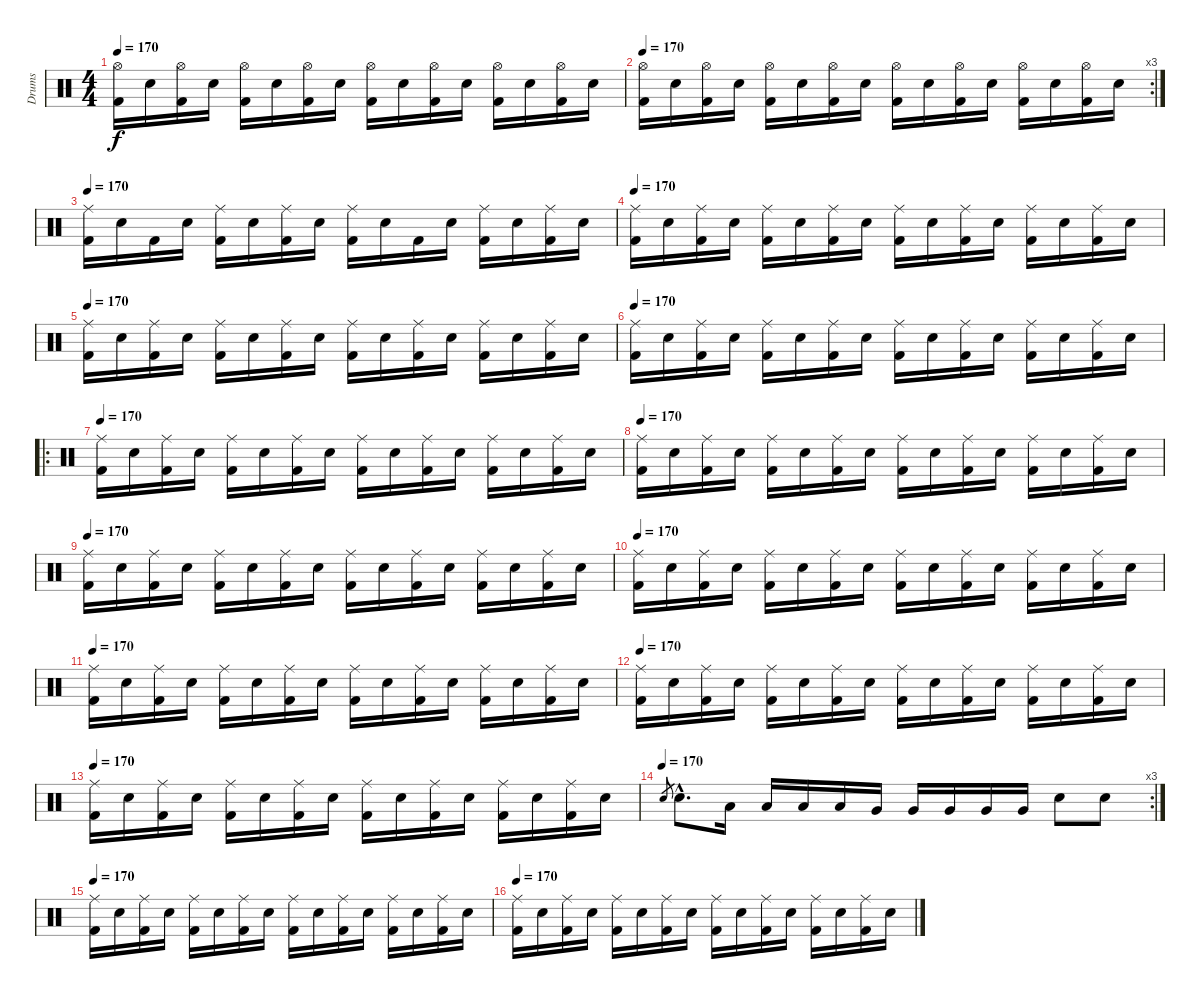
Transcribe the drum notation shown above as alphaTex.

\track ("Drums" "Drums") {instrument percussion}
\staff {score}
\articulation defaults
\ts (4 4)
\tempo 170
\clef neutral
\ks c
("Hi-Hat (open)" "Kick (hit) 2").16{dy f} "Snare (hit) 2".16 ("Hi-Hat (open)" "Kick (hit) 2").16 "Snare (hit) 2".16 ("Hi-Hat (open)" "Kick (hit) 2").16 "Snare (hit) 2".16 ("Hi-Hat (open)" "Kick (hit) 2").16 "Snare (hit) 2".16 ("Hi-Hat (open)" "Kick (hit) 2").16 "Snare (hit) 2".16 ("Hi-Hat (open)" "Kick (hit) 2").16 "Snare (hit) 2".16 ("Hi-Hat (open)" "Kick (hit) 2").16 "Snare (hit) 2".16 ("Hi-Hat (open)" "Kick (hit) 2").16 "Snare (hit) 2".16 |
\rc 3
\tempo 170
("Hi-Hat (open)" "Kick (hit) 2").16 "Snare (hit) 2".16 ("Hi-Hat (open)" "Kick (hit) 2").16 "Snare (hit) 2".16 ("Hi-Hat (open)" "Kick (hit) 2").16 "Snare (hit) 2".16 ("Hi-Hat (open)" "Kick (hit) 2").16 "Snare (hit) 2".16 ("Hi-Hat (open)" "Kick (hit) 2").16 "Snare (hit) 2".16 ("Hi-Hat (open)" "Kick (hit) 2").16 "Snare (hit) 2".16 ("Hi-Hat (open)" "Kick (hit) 2").16 "Snare (hit) 2".16 ("Hi-Hat (open)" "Kick (hit) 2").16 "Snare (hit) 2".16 |
\tempo 170
("Ride (middle)" "Kick (hit) 2").16 "Snare (hit) 2".16 "Kick (hit) 2".16 "Snare (hit) 2".16 ("Ride (middle)" "Kick (hit) 2").16 "Snare (hit) 2".16 ("Ride (middle)" "Kick (hit) 2").16 "Snare (hit) 2".16 ("Ride (middle)" "Kick (hit) 2").16 "Snare (hit) 2".16 "Kick (hit) 2".16 "Snare (hit) 2".16 ("Ride (middle)" "Kick (hit) 2").16 "Snare (hit) 2".16 ("Ride (middle)" "Kick (hit) 2").16 "Snare (hit) 2".16 |
\tempo 170
("Ride (middle)" "Kick (hit) 2").16 "Snare (hit) 2".16 ("Ride (middle)" "Kick (hit) 2").16 "Snare (hit) 2".16 ("Ride (middle)" "Kick (hit) 2").16 "Snare (hit) 2".16 ("Ride (middle)" "Kick (hit) 2").16 "Snare (hit) 2".16 ("Ride (middle)" "Kick (hit) 2").16 "Snare (hit) 2".16 ("Ride (middle)" "Kick (hit) 2").16 "Snare (hit) 2".16 ("Ride (middle)" "Kick (hit) 2").16 "Snare (hit) 2".16 ("Ride (middle)" "Kick (hit) 2").16 "Snare (hit) 2".16 |
\tempo 170
("Ride (middle)" "Kick (hit) 2").16 "Snare (hit) 2".16 ("Ride (middle)" "Kick (hit) 2").16 "Snare (hit) 2".16 ("Ride (middle)" "Kick (hit) 2").16 "Snare (hit) 2".16 ("Ride (middle)" "Kick (hit) 2").16 "Snare (hit) 2".16 ("Ride (middle)" "Kick (hit) 2").16 "Snare (hit) 2".16 ("Ride (middle)" "Kick (hit) 2").16 "Snare (hit) 2".16 ("Ride (middle)" "Kick (hit) 2").16 "Snare (hit) 2".16 ("Ride (middle)" "Kick (hit) 2").16 "Snare (hit) 2".16 |
\tempo 170
("Ride (middle)" "Kick (hit) 2").16 "Snare (hit) 2".16 ("Ride (middle)" "Kick (hit) 2").16 "Snare (hit) 2".16 ("Ride (middle)" "Kick (hit) 2").16 "Snare (hit) 2".16 ("Ride (middle)" "Kick (hit) 2").16 "Snare (hit) 2".16 ("Ride (middle)" "Kick (hit) 2").16 "Snare (hit) 2".16 ("Ride (middle)" "Kick (hit) 2").16 "Snare (hit) 2".16 ("Ride (middle)" "Kick (hit) 2").16 "Snare (hit) 2".16 ("Ride (middle)" "Kick (hit) 2").16 "Snare (hit) 2".16 |
\ro
\tempo 170
("Ride (middle)" "Kick (hit) 2").16 "Snare (hit) 2".16 ("Ride (middle)" "Kick (hit) 2").16 "Snare (hit) 2".16 ("Ride (middle)" "Kick (hit) 2").16 "Snare (hit) 2".16 ("Ride (middle)" "Kick (hit) 2").16 "Snare (hit) 2".16 ("Ride (middle)" "Kick (hit) 2").16 "Snare (hit) 2".16 ("Ride (middle)" "Kick (hit) 2").16 "Snare (hit) 2".16 ("Ride (middle)" "Kick (hit) 2").16 "Snare (hit) 2".16 ("Ride (middle)" "Kick (hit) 2").16 "Snare (hit) 2".16 |
\tempo 170
("Ride (middle)" "Kick (hit) 2").16 "Snare (hit) 2".16 ("Ride (middle)" "Kick (hit) 2").16 "Snare (hit) 2".16 ("Ride (middle)" "Kick (hit) 2").16 "Snare (hit) 2".16 ("Ride (middle)" "Kick (hit) 2").16 "Snare (hit) 2".16 ("Ride (middle)" "Kick (hit) 2").16 "Snare (hit) 2".16 ("Ride (middle)" "Kick (hit) 2").16 "Snare (hit) 2".16 ("Ride (middle)" "Kick (hit) 2").16 "Snare (hit) 2".16 ("Ride (middle)" "Kick (hit) 2").16 "Snare (hit) 2".16 |
\tempo 170
("Ride (middle)" "Kick (hit) 2").16 "Snare (hit) 2".16 ("Ride (middle)" "Kick (hit) 2").16 "Snare (hit) 2".16 ("Ride (middle)" "Kick (hit) 2").16 "Snare (hit) 2".16 ("Ride (middle)" "Kick (hit) 2").16 "Snare (hit) 2".16 ("Ride (middle)" "Kick (hit) 2").16 "Snare (hit) 2".16 ("Ride (middle)" "Kick (hit) 2").16 "Snare (hit) 2".16 ("Ride (middle)" "Kick (hit) 2").16 "Snare (hit) 2".16 ("Ride (middle)" "Kick (hit) 2").16 "Snare (hit) 2".16 |
\tempo 170
("Ride (middle)" "Kick (hit) 2").16 "Snare (hit) 2".16 ("Ride (middle)" "Kick (hit) 2").16 "Snare (hit) 2".16 ("Ride (middle)" "Kick (hit) 2").16 "Snare (hit) 2".16 ("Ride (middle)" "Kick (hit) 2").16 "Snare (hit) 2".16 ("Ride (middle)" "Kick (hit) 2").16 "Snare (hit) 2".16 ("Ride (middle)" "Kick (hit) 2").16 "Snare (hit) 2".16 ("Ride (middle)" "Kick (hit) 2").16 "Snare (hit) 2".16 ("Ride (middle)" "Kick (hit) 2").16 "Snare (hit) 2".16 |
\tempo 170
("Ride (middle)" "Kick (hit) 2").16 "Snare (hit) 2".16 ("Ride (middle)" "Kick (hit) 2").16 "Snare (hit) 2".16 ("Ride (middle)" "Kick (hit) 2").16 "Snare (hit) 2".16 ("Ride (middle)" "Kick (hit) 2").16 "Snare (hit) 2".16 ("Ride (middle)" "Kick (hit) 2").16 "Snare (hit) 2".16 ("Ride (middle)" "Kick (hit) 2").16 "Snare (hit) 2".16 ("Ride (middle)" "Kick (hit) 2").16 "Snare (hit) 2".16 ("Ride (middle)" "Kick (hit) 2").16 "Snare (hit) 2".16 |
\tempo 170
("Ride (middle)" "Kick (hit) 2").16 "Snare (hit) 2".16 ("Ride (middle)" "Kick (hit) 2").16 "Snare (hit) 2".16 ("Ride (middle)" "Kick (hit) 2").16 "Snare (hit) 2".16 ("Ride (middle)" "Kick (hit) 2").16 "Snare (hit) 2".16 ("Ride (middle)" "Kick (hit) 2").16 "Snare (hit) 2".16 ("Ride (middle)" "Kick (hit) 2").16 "Snare (hit) 2".16 ("Ride (middle)" "Kick (hit) 2").16 "Snare (hit) 2".16 ("Ride (middle)" "Kick (hit) 2").16 "Snare (hit) 2".16 |
\tempo 170
("Ride (middle)" "Kick (hit) 2").16 "Snare (hit) 2".16 ("Ride (middle)" "Kick (hit) 2").16 "Snare (hit) 2".16 ("Ride (middle)" "Kick (hit) 2").16 "Snare (hit) 2".16 ("Ride (middle)" "Kick (hit) 2").16 "Snare (hit) 2".16 ("Ride (middle)" "Kick (hit) 2").16 "Snare (hit) 2".16 ("Ride (middle)" "Kick (hit) 2").16 "Snare (hit) 2".16 ("Ride (middle)" "Kick (hit) 2").16 "Snare (hit) 2".16 ("Ride (middle)" "Kick (hit) 2").16 "Snare (hit) 2".16 |
\rc 3
\tempo (170)
"Snare (hit) 2".8{gr} "Snare (hit) 2"{hac}.8{d} "Low Floor Tom (hit)".16 "Low Floor Tom (hit)".16 "Low Floor Tom (hit)".16 "Low Floor Tom (hit)".16 "Very Low Tom (hit)".16 "Very Low Tom (hit)".16 "Very Low Tom (hit)".16 "Very Low Tom (hit)".16 "Very Low Tom (hit)".16 "Snare (hit) 2".8 "Snare (hit) 2".8 |
\tempo 170
("Ride (middle)" "Kick (hit) 2").16 "Snare (hit) 2".16 ("Ride (middle)" "Kick (hit) 2").16 "Snare (hit) 2".16 ("Ride (middle)" "Kick (hit) 2").16 "Snare (hit) 2".16 ("Ride (middle)" "Kick (hit) 2").16 "Snare (hit) 2".16 ("Ride (middle)" "Kick (hit) 2").16 "Snare (hit) 2".16 ("Ride (middle)" "Kick (hit) 2").16 "Snare (hit) 2".16 ("Ride (middle)" "Kick (hit) 2").16 "Snare (hit) 2".16 ("Ride (middle)" "Kick (hit) 2").16 "Snare (hit) 2".16 |
\tempo 170
("Ride (middle)" "Kick (hit) 2").16 "Snare (hit) 2".16 ("Ride (middle)" "Kick (hit) 2").16 "Snare (hit) 2".16 ("Ride (middle)" "Kick (hit) 2").16 "Snare (hit) 2".16 ("Ride (middle)" "Kick (hit) 2").16 "Snare (hit) 2".16 ("Ride (middle)" "Kick (hit) 2").16 "Snare (hit) 2".16 ("Ride (middle)" "Kick (hit) 2").16 "Snare (hit) 2".16 ("Ride (middle)" "Kick (hit) 2").16 "Snare (hit) 2".16 ("Ride (middle)" "Kick (hit) 2").16 "Snare (hit) 2".16
